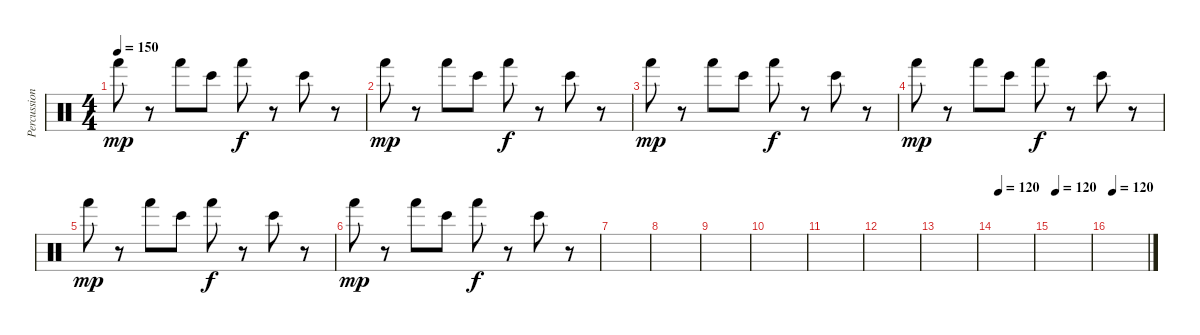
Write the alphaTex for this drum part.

\track ("Percussion" "Percussion") {instrument percussion}
\staff {score}
\articulation defaults
\ts (4 4)
\tempo 150
\clef neutral
\ks c "Hand (hit)".8{dy mp}
r.8 "Hand (hit)".8 "Bongo High (hit)".8 "Hand (hit)".8{dy f} r.8 "Bongo High (hit)".8 r.8 |
"Hand (hit)".8{dy mp} r.8 "Hand (hit)".8 "Bongo High (hit)".8 "Hand (hit)".8{dy f} r.8 "Bongo High (hit)".8 r.8 |
"Hand (hit)".8{dy mp} r.8 "Hand (hit)".8 "Bongo High (hit)".8 "Hand (hit)".8{dy f} r.8 "Bongo High (hit)".8 r.8 |
"Hand (hit)".8{dy mp} r.8 "Hand (hit)".8 "Bongo High (hit)".8 "Hand (hit)".8{dy f} r.8 "Bongo High (hit)".8 r.8 |
"Hand (hit)".8{dy mp} r.8 "Hand (hit)".8 "Bongo High (hit)".8 "Hand (hit)".8{dy f} r.8 "Bongo High (hit)".8 r.8 |
"Hand (hit)".8{dy mp} r.8 "Hand (hit)".8 "Bongo High (hit)".8 "Hand (hit)".8{dy f} r.8 "Bongo High (hit)".8 r.8 |
|
|
|
|
|
|
|
\tempo (120 0.0625)
|
\tempo (120 0.0625)
|
\tempo (120 0.0625)
